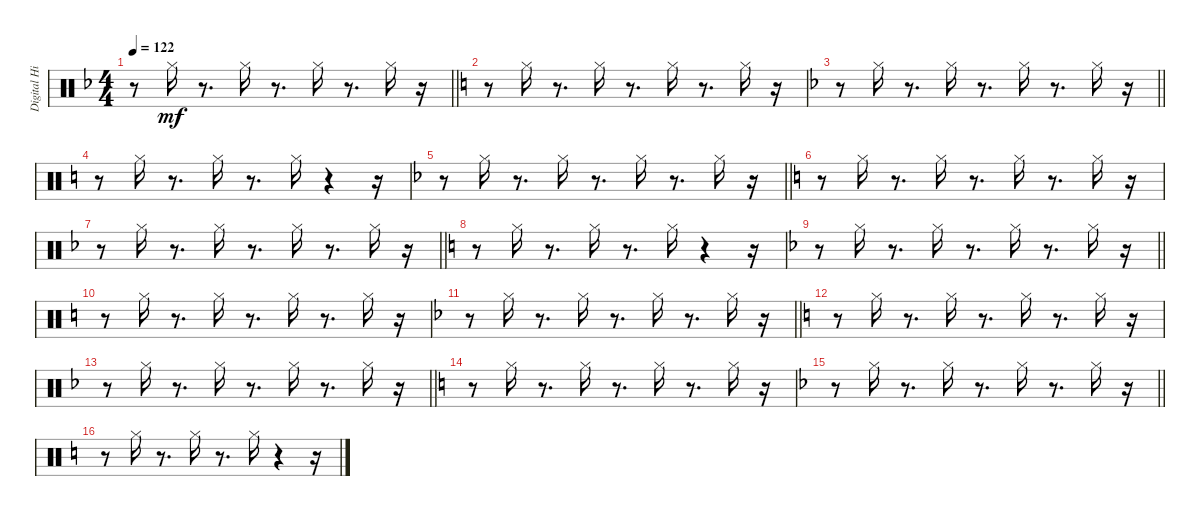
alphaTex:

\track ("Digital Hi-Hat (Stephen Morris)" "Digital Hi") {instrument percussion}
\staff {score}
\articulation defaults
\ts (4 4)
\tempo 122
\clef neutral
\barLineRight lightlight
\ks f
r.8{dy mf} "Hi-Hat (closed)".16 r.8{d} "Hi-Hat (closed)".16 r.8{d} "Hi-Hat (closed)".16 r.8{d} "Hi-Hat (closed)".16 r.16 |
\ks c
r.8 "Hi-Hat (closed)".16 r.8{d} "Hi-Hat (closed)".16 r.8{d} "Hi-Hat (closed)".16 r.8{d} "Hi-Hat (closed)".16 r.16 |
\barLineRight lightlight
\ks f
r.8 "Hi-Hat (closed)".16 r.8{d} "Hi-Hat (closed)".16 r.8{d} "Hi-Hat (closed)".16 r.8{d} "Hi-Hat (closed)".16 r.16 |
\ks c
r.8 "Hi-Hat (closed)".16 r.8{d} "Hi-Hat (closed)".16 r.8{d} "Hi-Hat (closed)".16 r.4 r.16 |
\barLineRight lightlight
\ks f
r.8 "Hi-Hat (closed)".16 r.8{d} "Hi-Hat (closed)".16 r.8{d} "Hi-Hat (closed)".16 r.8{d} "Hi-Hat (closed)".16 r.16 |
\ks c
r.8 "Hi-Hat (closed)".16 r.8{d} "Hi-Hat (closed)".16 r.8{d} "Hi-Hat (closed)".16 r.8{d} "Hi-Hat (closed)".16 r.16 |
\barLineRight lightlight
\ks f
r.8 "Hi-Hat (closed)".16 r.8{d} "Hi-Hat (closed)".16 r.8{d} "Hi-Hat (closed)".16 r.8{d} "Hi-Hat (closed)".16 r.16 |
\ks c
r.8 "Hi-Hat (closed)".16 r.8{d} "Hi-Hat (closed)".16 r.8{d} "Hi-Hat (closed)".16 r.4 r.16 |
\barLineRight lightlight
\ks f
r.8 "Hi-Hat (closed)".16 r.8{d} "Hi-Hat (closed)".16 r.8{d} "Hi-Hat (closed)".16 r.8{d} "Hi-Hat (closed)".16 r.16 |
\ks c
r.8 "Hi-Hat (closed)".16 r.8{d} "Hi-Hat (closed)".16 r.8{d} "Hi-Hat (closed)".16 r.8{d} "Hi-Hat (closed)".16 r.16 |
\barLineRight lightlight
\ks f
r.8 "Hi-Hat (closed)".16 r.8{d} "Hi-Hat (closed)".16 r.8{d} "Hi-Hat (closed)".16 r.8{d} "Hi-Hat (closed)".16 r.16 |
\ks c
r.8 "Hi-Hat (closed)".16 r.8{d} "Hi-Hat (closed)".16 r.8{d} "Hi-Hat (closed)".16 r.8{d} "Hi-Hat (closed)".16 r.16 |
\barLineRight lightlight
\ks f
r.8 "Hi-Hat (closed)".16 r.8{d} "Hi-Hat (closed)".16 r.8{d} "Hi-Hat (closed)".16 r.8{d} "Hi-Hat (closed)".16 r.16 |
\ks c
r.8 "Hi-Hat (closed)".16 r.8{d} "Hi-Hat (closed)".16 r.8{d} "Hi-Hat (closed)".16 r.8{d} "Hi-Hat (closed)".16 r.16 |
\barLineRight lightlight
\ks f
r.8 "Hi-Hat (closed)".16 r.8{d} "Hi-Hat (closed)".16 r.8{d} "Hi-Hat (closed)".16 r.8{d} "Hi-Hat (closed)".16 r.16 |
\ks c
r.8 "Hi-Hat (closed)".16 r.8{d} "Hi-Hat (closed)".16 r.8{d} "Hi-Hat (closed)".16 r.4 r.16
